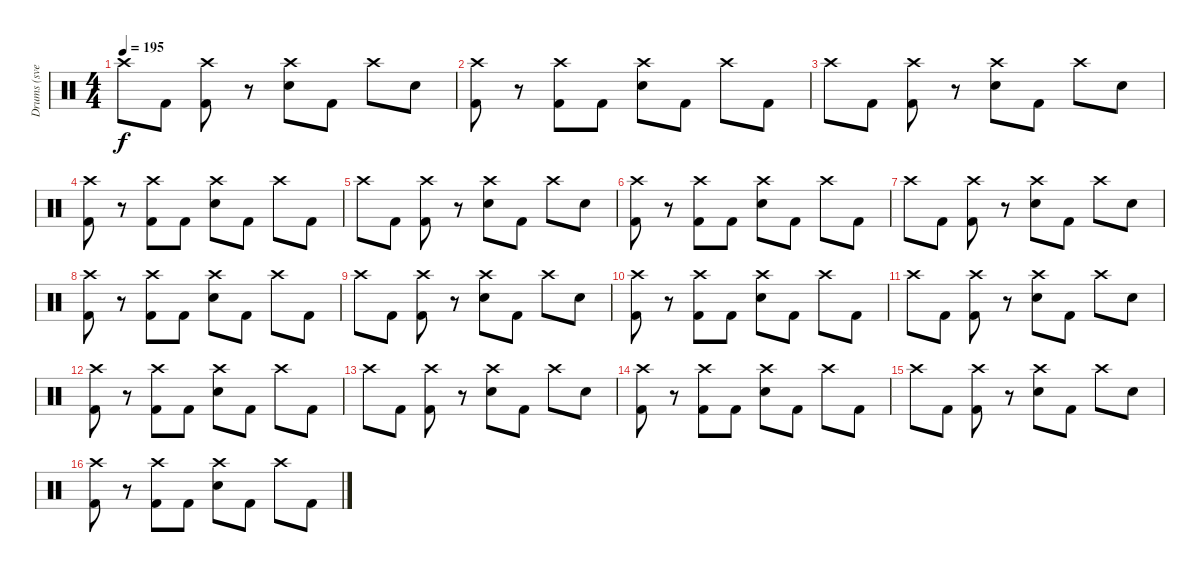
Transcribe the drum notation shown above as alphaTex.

\track ("Drums (svelle)" "Drums (sve") {instrument percussion}
\staff {score}
\articulation defaults
\ts (4 4)
\tempo 195
\clef neutral
\ks c "Crash high (hit)".8{dy f} "Kick (hit) 2".8
("Crash high (hit)" "Kick (hit) 2").8 r.8 ("Crash high (hit)" "Electric Snare (hit)").8 "Kick (hit) 2".8 "Crash high (hit)".8 "Electric Snare (hit)".8 |
("Crash high (hit)" "Kick (hit) 2").8 r.8 ("Crash high (hit)" "Kick (hit) 2").8 "Kick (hit) 2".8 ("Crash high (hit)" "Electric Snare (hit)").8 "Kick (hit) 2".8 "Crash high (hit)".8 "Kick (hit) 2".8 |
"Crash high (hit)".8 "Kick (hit) 2".8 ("Crash high (hit)" "Kick (hit) 2").8 r.8 ("Crash high (hit)" "Electric Snare (hit)").8 "Kick (hit) 2".8 "Crash high (hit)".8 "Electric Snare (hit)".8 |
("Crash high (hit)" "Kick (hit) 2").8 r.8 ("Crash high (hit)" "Kick (hit) 2").8 "Kick (hit) 2".8 ("Crash high (hit)" "Electric Snare (hit)").8 "Kick (hit) 2".8 "Crash high (hit)".8 "Kick (hit) 2".8 |
"Crash high (hit)".8 "Kick (hit) 2".8 ("Crash high (hit)" "Kick (hit) 2").8 r.8 ("Crash high (hit)" "Electric Snare (hit)").8 "Kick (hit) 2".8 "Crash high (hit)".8 "Electric Snare (hit)".8 |
("Crash high (hit)" "Kick (hit) 2").8 r.8 ("Crash high (hit)" "Kick (hit) 2").8 "Kick (hit) 2".8 ("Crash high (hit)" "Electric Snare (hit)").8 "Kick (hit) 2".8 "Crash high (hit)".8 "Kick (hit) 2".8 |
"Crash high (hit)".8 "Kick (hit) 2".8 ("Crash high (hit)" "Kick (hit) 2").8 r.8 ("Crash high (hit)" "Electric Snare (hit)").8 "Kick (hit) 2".8 "Crash high (hit)".8 "Electric Snare (hit)".8 |
("Crash high (hit)" "Kick (hit) 2").8 r.8 ("Crash high (hit)" "Kick (hit) 2").8 "Kick (hit) 2".8 ("Crash high (hit)" "Electric Snare (hit)").8 "Kick (hit) 2".8 "Crash high (hit)".8 "Kick (hit) 2".8 |
"Crash high (hit)".8 "Kick (hit) 2".8 ("Crash high (hit)" "Kick (hit) 2").8 r.8 ("Crash high (hit)" "Electric Snare (hit)").8 "Kick (hit) 2".8 "Crash high (hit)".8 "Electric Snare (hit)".8 |
("Crash high (hit)" "Kick (hit) 2").8 r.8 ("Crash high (hit)" "Kick (hit) 2").8 "Kick (hit) 2".8 ("Crash high (hit)" "Electric Snare (hit)").8 "Kick (hit) 2".8 "Crash high (hit)".8 "Kick (hit) 2".8 |
"Crash high (hit)".8 "Kick (hit) 2".8 ("Crash high (hit)" "Kick (hit) 2").8 r.8 ("Crash high (hit)" "Electric Snare (hit)").8 "Kick (hit) 2".8 "Crash high (hit)".8 "Electric Snare (hit)".8 |
("Crash high (hit)" "Kick (hit) 2").8 r.8 ("Crash high (hit)" "Kick (hit) 2").8 "Kick (hit) 2".8 ("Crash high (hit)" "Electric Snare (hit)").8 "Kick (hit) 2".8 "Crash high (hit)".8 "Kick (hit) 2".8 |
"Crash high (hit)".8 "Kick (hit) 2".8 ("Crash high (hit)" "Kick (hit) 2").8 r.8 ("Crash high (hit)" "Electric Snare (hit)").8 "Kick (hit) 2".8 "Crash high (hit)".8 "Electric Snare (hit)".8 |
("Crash high (hit)" "Kick (hit) 2").8 r.8 ("Crash high (hit)" "Kick (hit) 2").8 "Kick (hit) 2".8 ("Crash high (hit)" "Electric Snare (hit)").8 "Kick (hit) 2".8 "Crash high (hit)".8 "Kick (hit) 2".8 |
"Crash high (hit)".8 "Kick (hit) 2".8 ("Crash high (hit)" "Kick (hit) 2").8 r.8 ("Crash high (hit)" "Electric Snare (hit)").8 "Kick (hit) 2".8 "Crash high (hit)".8 "Electric Snare (hit)".8 |
("Crash high (hit)" "Kick (hit) 2").8 r.8 ("Crash high (hit)" "Kick (hit) 2").8 "Kick (hit) 2".8 ("Crash high (hit)" "Electric Snare (hit)").8 "Kick (hit) 2".8 "Crash high (hit)".8 "Kick (hit) 2".8
